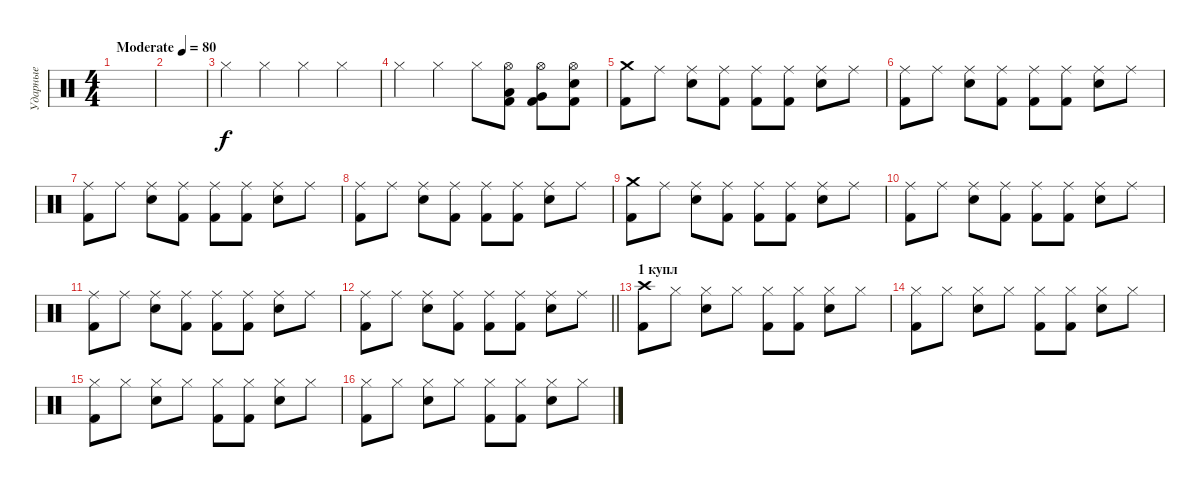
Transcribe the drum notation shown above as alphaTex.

\track ("Ударные" "Ударные") {instrument percussion}
\staff {score}
\articulation defaults
\ts (4 4)
\tempo (80 "Moderate")
\clef neutral
\ks c
|
|
"Hi-Hat (closed)".4 "Hi-Hat (closed)".4 "Hi-Hat (closed)".4 "Hi-Hat (closed)".4 |
"Hi-Hat (closed)".4 "Hi-Hat (closed)".4 "Hi-Hat (closed)".8 ("Hi-Hat (open)" "Low Tom (hit)" "Kick (hit) 2").8 ("Hi-Hat (open)" "Very Low Tom (hit)" "Kick (hit) 2").8 ("Hi-Hat (open)" "Electric Snare (hit)" "Kick (hit) 2").8 |
("Crash medium (hit)" "Kick (hit) 2").8 "Ride (middle)".8 ("Ride (middle)" "Electric Snare (hit)").8 ("Ride (middle)" "Kick (hit) 2").8 ("Ride (middle)" "Kick (hit) 2").8 ("Ride (middle)" "Kick (hit) 2").8 ("Ride (middle)" "Electric Snare (hit)").8 "Ride (middle)".8 |
("Ride (middle)" "Kick (hit) 2").8 "Ride (middle)".8 ("Ride (middle)" "Electric Snare (hit)").8 ("Ride (middle)" "Kick (hit) 2").8 ("Ride (middle)" "Kick (hit) 2").8 ("Ride (middle)" "Kick (hit) 2").8 ("Ride (middle)" "Electric Snare (hit)").8 "Ride (middle)".8 |
("Ride (middle)" "Kick (hit) 2").8 "Ride (middle)".8 ("Ride (middle)" "Electric Snare (hit)").8 ("Ride (middle)" "Kick (hit) 2").8 ("Ride (middle)" "Kick (hit) 2").8 ("Ride (middle)" "Kick (hit) 2").8 ("Ride (middle)" "Electric Snare (hit)").8 "Ride (middle)".8 |
("Ride (middle)" "Kick (hit) 2").8 "Ride (middle)".8 ("Ride (middle)" "Electric Snare (hit)").8 ("Ride (middle)" "Kick (hit) 2").8 ("Ride (middle)" "Kick (hit) 2").8 ("Ride (middle)" "Kick (hit) 2").8 ("Ride (middle)" "Electric Snare (hit)").8 "Ride (middle)".8 |
("Crash medium (hit)" "Kick (hit) 2").8 "Ride (middle)".8 ("Ride (middle)" "Electric Snare (hit)").8 ("Ride (middle)" "Kick (hit) 2").8 ("Ride (middle)" "Kick (hit) 2").8 ("Ride (middle)" "Kick (hit) 2").8 ("Ride (middle)" "Electric Snare (hit)").8 "Ride (middle)".8 |
("Ride (middle)" "Kick (hit) 2").8 "Ride (middle)".8 ("Ride (middle)" "Electric Snare (hit)").8 ("Ride (middle)" "Kick (hit) 2").8 ("Ride (middle)" "Kick (hit) 2").8 ("Ride (middle)" "Kick (hit) 2").8 ("Ride (middle)" "Electric Snare (hit)").8 "Ride (middle)".8 |
("Ride (middle)" "Kick (hit) 2").8 "Ride (middle)".8 ("Ride (middle)" "Electric Snare (hit)").8 ("Ride (middle)" "Kick (hit) 2").8 ("Ride (middle)" "Kick (hit) 2").8 ("Ride (middle)" "Kick (hit) 2").8 ("Ride (middle)" "Electric Snare (hit)").8 "Ride (middle)".8 |
\barLineRight lightlight
("Ride (middle)" "Kick (hit) 2").8 "Ride (middle)".8 ("Ride (middle)" "Electric Snare (hit)").8 ("Ride (middle)" "Kick (hit) 2").8 ("Ride (middle)" "Kick (hit) 2").8 ("Ride (middle)" "Kick (hit) 2").8 ("Ride (middle)" "Electric Snare (hit)").8 "Ride (middle)".8 |
\section ("" "1 купл")
("Crash high (hit)" "Kick (hit) 2").8 "Hi-Hat (closed)".8 ("Hi-Hat (closed)" "Electric Snare (hit)").8 "Hi-Hat (closed)".8 ("Hi-Hat (closed)" "Kick (hit) 2").8 ("Hi-Hat (closed)" "Kick (hit) 2").8 ("Hi-Hat (closed)" "Electric Snare (hit)").8 "Hi-Hat (closed)".8 |
("Hi-Hat (closed)" "Kick (hit) 2").8 "Hi-Hat (closed)".8 ("Hi-Hat (closed)" "Electric Snare (hit)").8 "Hi-Hat (closed)".8 ("Hi-Hat (closed)" "Kick (hit) 2").8 ("Hi-Hat (closed)" "Kick (hit) 2").8 ("Hi-Hat (closed)" "Electric Snare (hit)").8 "Hi-Hat (closed)".8 |
("Hi-Hat (closed)" "Kick (hit) 2").8 "Hi-Hat (closed)".8 ("Hi-Hat (closed)" "Electric Snare (hit)").8 "Hi-Hat (closed)".8 ("Hi-Hat (closed)" "Kick (hit) 2").8 ("Hi-Hat (closed)" "Kick (hit) 2").8 ("Hi-Hat (closed)" "Electric Snare (hit)").8 "Hi-Hat (closed)".8 |
("Hi-Hat (closed)" "Kick (hit) 2").8 "Hi-Hat (closed)".8 ("Hi-Hat (closed)" "Electric Snare (hit)").8 "Hi-Hat (closed)".8 ("Hi-Hat (closed)" "Kick (hit) 2").8 ("Hi-Hat (closed)" "Kick (hit) 2").8 ("Hi-Hat (closed)" "Electric Snare (hit)").8 "Hi-Hat (closed)".8
